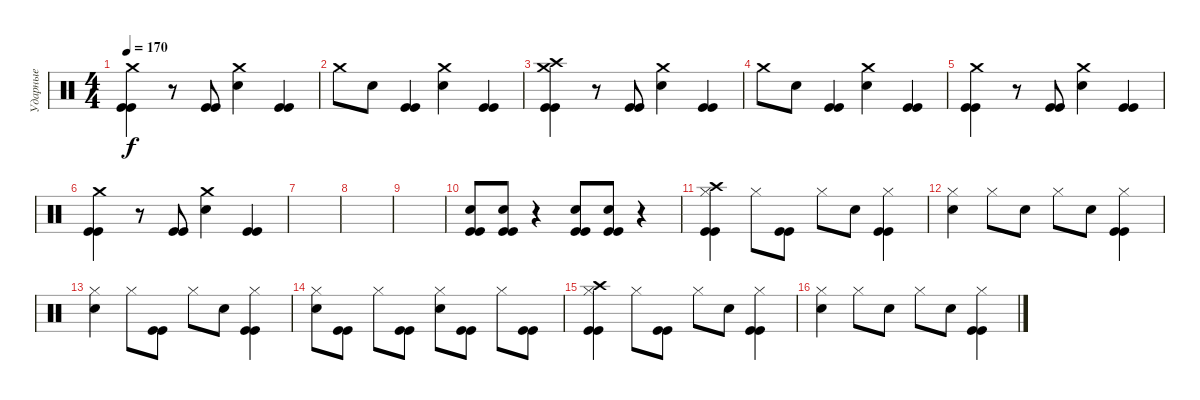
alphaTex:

\track ("Ударные" "Ударные") {instrument percussion}
\staff {score}
\articulation defaults
\ts (4 4)
\tempo 170
\clef neutral
\ks c
("Crash medium (hit)" "Kick (hit)" "Kick (hit)").4{dy f} r.8 ("Kick (hit)" "Kick (hit)").8 ("Crash medium (hit)" "Electric Snare (hit)").4 ("Kick (hit)" "Kick (hit)").4 |
"Crash medium (hit)".8 "Electric Snare (hit)".8 ("Kick (hit)" "Kick (hit)").4 ("Crash medium (hit)" "Electric Snare (hit)").4 ("Kick (hit)" "Kick (hit)").4 |
("Crash high (hit)" "Crash medium (hit)" "Kick (hit)" "Kick (hit)").4 r.8 ("Kick (hit)" "Kick (hit)").8 ("Crash medium (hit)" "Electric Snare (hit)").4 ("Kick (hit)" "Kick (hit)").4 |
"Crash medium (hit)".8 "Electric Snare (hit)".8 ("Kick (hit)" "Kick (hit)").4 ("Crash medium (hit)" "Electric Snare (hit)").4 ("Kick (hit)" "Kick (hit)").4 |
("Crash medium (hit)" "Kick (hit)" "Kick (hit)").4 r.8 ("Kick (hit)" "Kick (hit)").8 ("Crash medium (hit)" "Electric Snare (hit)").4 ("Kick (hit)" "Kick (hit)").4 |
("Crash medium (hit)" "Kick (hit)" "Kick (hit)").4 r.8 ("Kick (hit)" "Kick (hit)").8 ("Crash medium (hit)" "Electric Snare (hit)").4 ("Kick (hit)" "Kick (hit)").4 |
|
|
|
("Electric Snare (hit)" "Kick (hit)" "Kick (hit)").8 ("Electric Snare (hit)" "Kick (hit)" "Kick (hit)").8 r.4 ("Electric Snare (hit)" "Kick (hit)" "Kick (hit)").8 ("Electric Snare (hit)" "Kick (hit)" "Kick (hit)").8 r.4 |
("Crash high (hit)" "Hi-Hat (closed)" "Kick (hit)" "Kick (hit)").4 "Hi-Hat (closed)".8 ("Kick (hit)" "Kick (hit)").8 "Hi-Hat (closed)".8 "Electric Snare (hit)".8 ("Hi-Hat (closed)" "Kick (hit)" "Kick (hit)").4 |
("Hi-Hat (closed)" "Electric Snare (hit)").4 "Hi-Hat (closed)".8 "Electric Snare (hit)".8 "Hi-Hat (closed)".8 "Electric Snare (hit)".8 ("Hi-Hat (closed)" "Kick (hit)" "Kick (hit)").4 |
("Hi-Hat (closed)" "Electric Snare (hit)").4 "Hi-Hat (closed)".8 ("Kick (hit)" "Kick (hit)").8 "Hi-Hat (closed)".8 "Electric Snare (hit)".8 ("Hi-Hat (closed)" "Kick (hit)" "Kick (hit)").4 |
("Hi-Hat (closed)" "Electric Snare (hit)").8 ("Kick (hit)" "Kick (hit)").8 "Hi-Hat (closed)".8 ("Kick (hit)" "Kick (hit)").8 ("Hi-Hat (closed)" "Electric Snare (hit)").8 ("Kick (hit)" "Kick (hit)").8 "Hi-Hat (closed)".8 ("Kick (hit)" "Kick (hit)").8 |
("Crash high (hit)" "Hi-Hat (closed)" "Kick (hit)" "Kick (hit)").4 "Hi-Hat (closed)".8 ("Kick (hit)" "Kick (hit)").8 "Hi-Hat (closed)".8 "Electric Snare (hit)".8 ("Hi-Hat (closed)" "Kick (hit)" "Kick (hit)").4 |
("Hi-Hat (closed)" "Electric Snare (hit)").4 "Hi-Hat (closed)".8 "Electric Snare (hit)".8 "Hi-Hat (closed)".8 "Electric Snare (hit)".8 ("Hi-Hat (closed)" "Kick (hit)" "Kick (hit)").4
